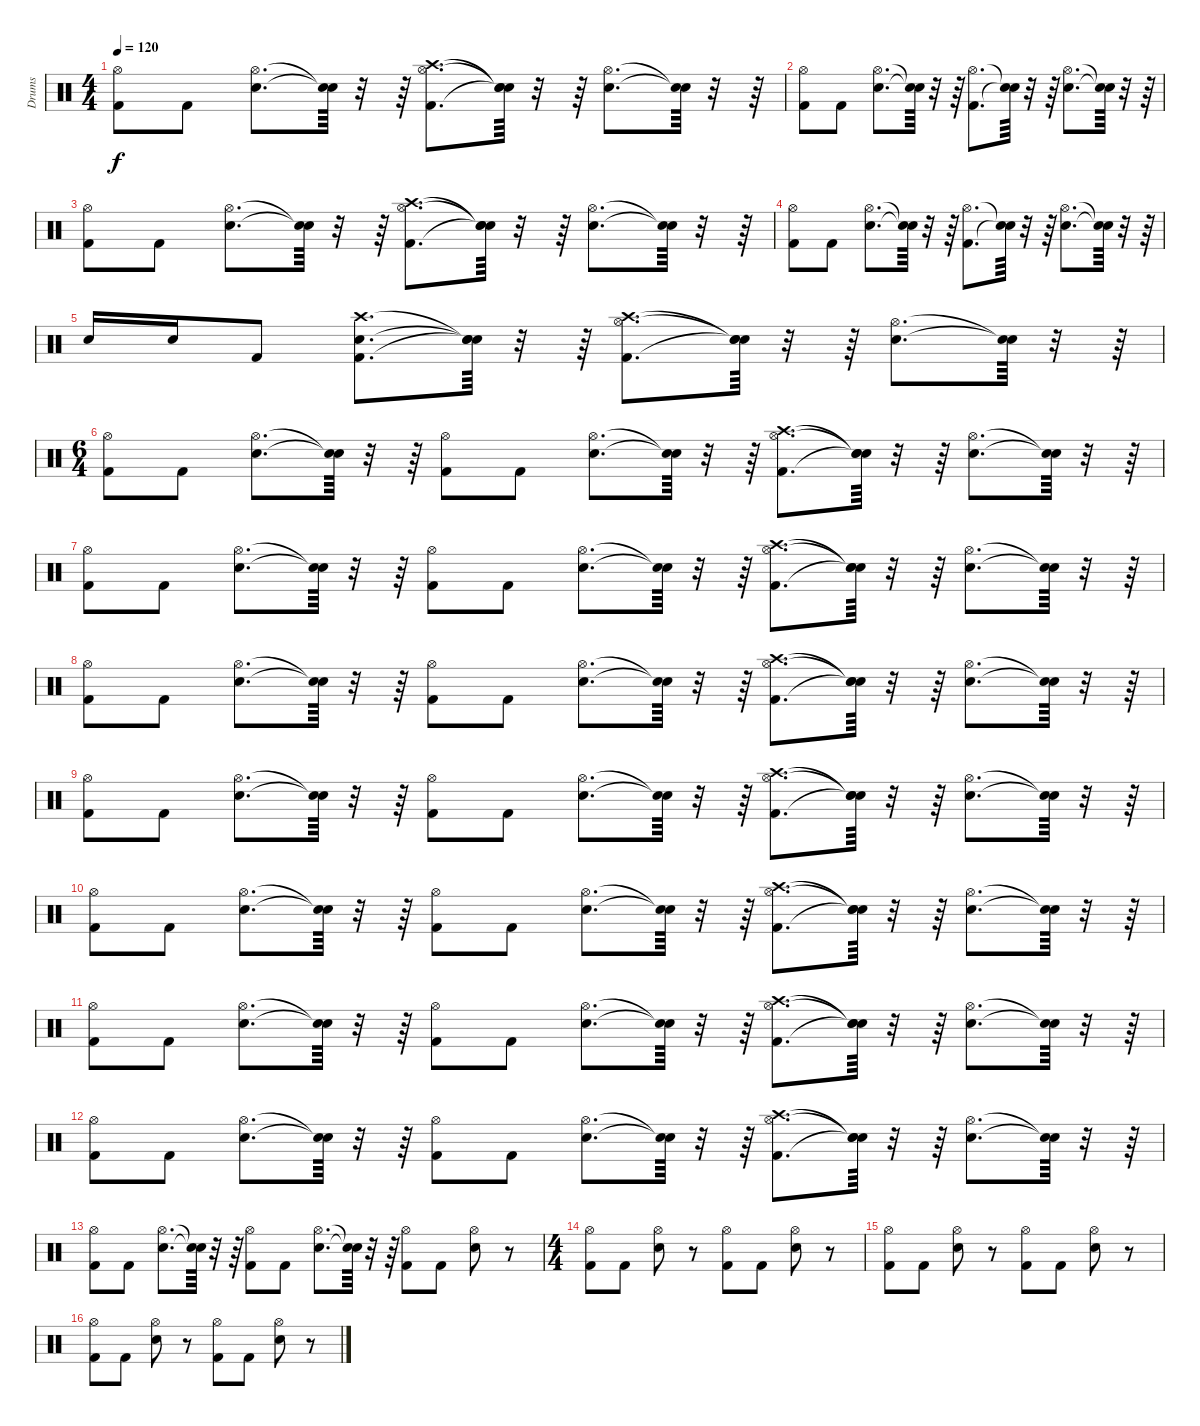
\track ("Drums" "Drums") {instrument percussion}
\staff {score}
\articulation defaults
\ts (4 4)
\tempo 120
\clef neutral
\ks c
("Kick (hit) 2" "Hi-Hat (open)").8{dy f} "Kick (hit) 2".8 ("Snare (hit) 2" "Hi-Hat (open)").8{d} ("Snare (hit)"{t} "Snare (hit)"{t}).64 r.32 r.64 ("Kick (hit) 2" "Hi-Hat (open)" "Crash high (hit)").8{d} ("Snare (hit)"{t} "Snare (hit)"{t} "Snare (hit)"{t}).64 r.32 r.64 ("Snare (hit) 2" "Hi-Hat (open)").8{d} ("Snare (hit)"{t} "Snare (hit)"{t}).64 r.32 r.64 |
("Kick (hit) 2" "Hi-Hat (open)").8 "Kick (hit) 2".8 ("Snare (hit) 2" "Hi-Hat (open)").8{d} ("Snare (hit)"{t} "Snare (hit)"{t}).64 r.32 r.64 ("Kick (hit) 2" "Hi-Hat (open)").8{d} ("Snare (hit)"{t} "Snare (hit)"{t}).64 r.32 r.64 ("Snare (hit) 2" "Hi-Hat (open)").8{d} ("Snare (hit)"{t} "Snare (hit)"{t}).64 r.32 r.64 |
("Kick (hit) 2" "Hi-Hat (open)").8 "Kick (hit) 2".8 ("Snare (hit) 2" "Hi-Hat (open)").8{d} ("Snare (hit)"{t} "Snare (hit)"{t}).64 r.32 r.64 ("Kick (hit) 2" "Hi-Hat (open)" "Crash high (hit)").8{d} ("Snare (hit)"{t} "Snare (hit)"{t} "Snare (hit)"{t}).64 r.32 r.64 ("Snare (hit) 2" "Hi-Hat (open)").8{d} ("Snare (hit)"{t} "Snare (hit)"{t}).64 r.32 r.64 |
("Kick (hit) 2" "Hi-Hat (open)").8 "Kick (hit) 2".8 ("Snare (hit) 2" "Hi-Hat (open)").8{d} ("Snare (hit)"{t} "Snare (hit)"{t}).64 r.32 r.64 ("Kick (hit) 2" "Hi-Hat (open)").8{d} ("Snare (hit)"{t} "Snare (hit)"{t}).64 r.32 r.64 ("Snare (hit) 2" "Hi-Hat (open)").8{d} ("Snare (hit)"{t} "Snare (hit)"{t}).64 r.32 r.64 |
"Snare (hit) 2".16 "Snare (hit) 2".16 "Kick (hit) 2".8 ("Kick (hit) 2" "Snare (hit) 2" "Crash high (hit)").8{d} ("Snare (hit)"{t} "Snare (hit)"{t} "Snare (hit)"{t}).64 r.32 r.64 ("Kick (hit) 2" "Hi-Hat (open)" "Crash high (hit)").8{d} ("Snare (hit)"{t} "Snare (hit)"{t} "Snare (hit)"{t}).64 r.32 r.64 ("Snare (hit) 2" "Hi-Hat (open)").8{d} ("Snare (hit)"{t} "Snare (hit)"{t}).64 r.32 r.64 |
\ts (6 4)
("Kick (hit) 2" "Hi-Hat (open)").8 "Kick (hit) 2".8 ("Snare (hit) 2" "Hi-Hat (open)").8{d} ("Snare (hit)"{t} "Snare (hit)"{t}).64 r.32 r.64 ("Kick (hit) 2" "Hi-Hat (open)").8 "Kick (hit) 2".8 ("Snare (hit) 2" "Hi-Hat (open)").8{d} ("Snare (hit)"{t} "Snare (hit)"{t}).64 r.32 r.64 ("Kick (hit) 2" "Hi-Hat (open)" "Crash high (hit)").8{d} ("Snare (hit)"{t} "Snare (hit)"{t} "Snare (hit)"{t}).64 r.32 r.64 ("Snare (hit) 2" "Hi-Hat (open)").8{d} ("Snare (hit)"{t} "Snare (hit)"{t}).64 r.32 r.64 |
("Kick (hit) 2" "Hi-Hat (open)").8 "Kick (hit) 2".8 ("Snare (hit) 2" "Hi-Hat (open)").8{d} ("Snare (hit)"{t} "Snare (hit)"{t}).64 r.32 r.64 ("Kick (hit) 2" "Hi-Hat (open)").8 "Kick (hit) 2".8 ("Snare (hit) 2" "Hi-Hat (open)").8{d} ("Snare (hit)"{t} "Snare (hit)"{t}).64 r.32 r.64 ("Kick (hit) 2" "Hi-Hat (open)" "Crash high (hit)").8{d} ("Snare (hit)"{t} "Snare (hit)"{t} "Snare (hit)"{t}).64 r.32 r.64 ("Snare (hit) 2" "Hi-Hat (open)").8{d} ("Snare (hit)"{t} "Snare (hit)"{t}).64 r.32 r.64 |
("Kick (hit) 2" "Hi-Hat (open)").8 "Kick (hit) 2".8 ("Snare (hit) 2" "Hi-Hat (open)").8{d} ("Snare (hit)"{t} "Snare (hit)"{t}).64 r.32 r.64 ("Kick (hit) 2" "Hi-Hat (open)").8 "Kick (hit) 2".8 ("Snare (hit) 2" "Hi-Hat (open)").8{d} ("Snare (hit)"{t} "Snare (hit)"{t}).64 r.32 r.64 ("Kick (hit) 2" "Hi-Hat (open)" "Crash high (hit)").8{d} ("Snare (hit)"{t} "Snare (hit)"{t} "Snare (hit)"{t}).64 r.32 r.64 ("Snare (hit) 2" "Hi-Hat (open)").8{d} ("Snare (hit)"{t} "Snare (hit)"{t}).64 r.32 r.64 |
("Kick (hit) 2" "Hi-Hat (open)").8 "Kick (hit) 2".8 ("Snare (hit) 2" "Hi-Hat (open)").8{d} ("Snare (hit)"{t} "Snare (hit)"{t}).64 r.32 r.64 ("Kick (hit) 2" "Hi-Hat (open)").8 "Kick (hit) 2".8 ("Snare (hit) 2" "Hi-Hat (open)").8{d} ("Snare (hit)"{t} "Snare (hit)"{t}).64 r.32 r.64 ("Kick (hit) 2" "Hi-Hat (open)" "Crash high (hit)").8{d} ("Snare (hit)"{t} "Snare (hit)"{t} "Snare (hit)"{t}).64 r.32 r.64 ("Snare (hit) 2" "Hi-Hat (open)").8{d} ("Snare (hit)"{t} "Snare (hit)"{t}).64 r.32 r.64 |
("Kick (hit) 2" "Hi-Hat (open)").8 "Kick (hit) 2".8 ("Snare (hit) 2" "Hi-Hat (open)").8{d} ("Snare (hit)"{t} "Snare (hit)"{t}).64 r.32 r.64 ("Kick (hit) 2" "Hi-Hat (open)").8 "Kick (hit) 2".8 ("Snare (hit) 2" "Hi-Hat (open)").8{d} ("Snare (hit)"{t} "Snare (hit)"{t}).64 r.32 r.64 ("Kick (hit) 2" "Hi-Hat (open)" "Crash high (hit)").8{d} ("Snare (hit)"{t} "Snare (hit)"{t} "Snare (hit)"{t}).64 r.32 r.64 ("Snare (hit) 2" "Hi-Hat (open)").8{d} ("Snare (hit)"{t} "Snare (hit)"{t}).64 r.32 r.64 |
("Kick (hit) 2" "Hi-Hat (open)").8 "Kick (hit) 2".8 ("Snare (hit) 2" "Hi-Hat (open)").8{d} ("Snare (hit)"{t} "Snare (hit)"{t}).64 r.32 r.64 ("Kick (hit) 2" "Hi-Hat (open)").8 "Kick (hit) 2".8 ("Snare (hit) 2" "Hi-Hat (open)").8{d} ("Snare (hit)"{t} "Snare (hit)"{t}).64 r.32 r.64 ("Kick (hit) 2" "Hi-Hat (open)" "Crash high (hit)").8{d} ("Snare (hit)"{t} "Snare (hit)"{t} "Snare (hit)"{t}).64 r.32 r.64 ("Snare (hit) 2" "Hi-Hat (open)").8{d} ("Snare (hit)"{t} "Snare (hit)"{t}).64 r.32 r.64 |
("Kick (hit) 2" "Hi-Hat (open)").8 "Kick (hit) 2".8 ("Snare (hit) 2" "Hi-Hat (open)").8{d} ("Snare (hit)"{t} "Snare (hit)"{t}).64 r.32 r.64 ("Kick (hit) 2" "Hi-Hat (open)").8 "Kick (hit) 2".8 ("Snare (hit) 2" "Hi-Hat (open)").8{d} ("Snare (hit)"{t} "Snare (hit)"{t}).64 r.32 r.64 ("Kick (hit) 2" "Hi-Hat (open)" "Crash high (hit)").8{d} ("Snare (hit)"{t} "Snare (hit)"{t} "Snare (hit)"{t}).64 r.32 r.64 ("Snare (hit) 2" "Hi-Hat (open)").8{d} ("Snare (hit)"{t} "Snare (hit)"{t}).64 r.32 r.64 |
("Kick (hit) 2" "Hi-Hat (open)").8 "Kick (hit) 2".8 ("Snare (hit) 2" "Hi-Hat (open)").8{d} ("Snare (hit)"{t} "Snare (hit)"{t}).64 r.32 r.64 ("Kick (hit) 2" "Hi-Hat (open)").8 "Kick (hit) 2".8 ("Snare (hit) 2" "Hi-Hat (open)").8{d} ("Snare (hit)"{t} "Snare (hit)"{t}).64 r.32 r.64 ("Kick (hit) 2" "Hi-Hat (open)").8 "Kick (hit) 2".8 ("Snare (hit) 2" "Hi-Hat (open)").8 r.8 |
\ts (4 4)
("Kick (hit) 2" "Hi-Hat (open)").8 "Kick (hit) 2".8 ("Snare (hit) 2" "Hi-Hat (open)").8 r.8 ("Kick (hit) 2" "Hi-Hat (open)").8 "Kick (hit) 2".8 ("Snare (hit) 2" "Hi-Hat (open)").8 r.8 |
("Kick (hit) 2" "Hi-Hat (open)").8 "Kick (hit) 2".8 ("Snare (hit) 2" "Hi-Hat (open)").8 r.8 ("Kick (hit) 2" "Hi-Hat (open)").8 "Kick (hit) 2".8 ("Snare (hit) 2" "Hi-Hat (open)").8 r.8 |
("Kick (hit) 2" "Hi-Hat (open)").8 "Kick (hit) 2".8 ("Snare (hit) 2" "Hi-Hat (open)").8 r.8 ("Kick (hit) 2" "Hi-Hat (open)").8 "Kick (hit) 2".8 ("Snare (hit) 2" "Hi-Hat (open)").8 r.8
